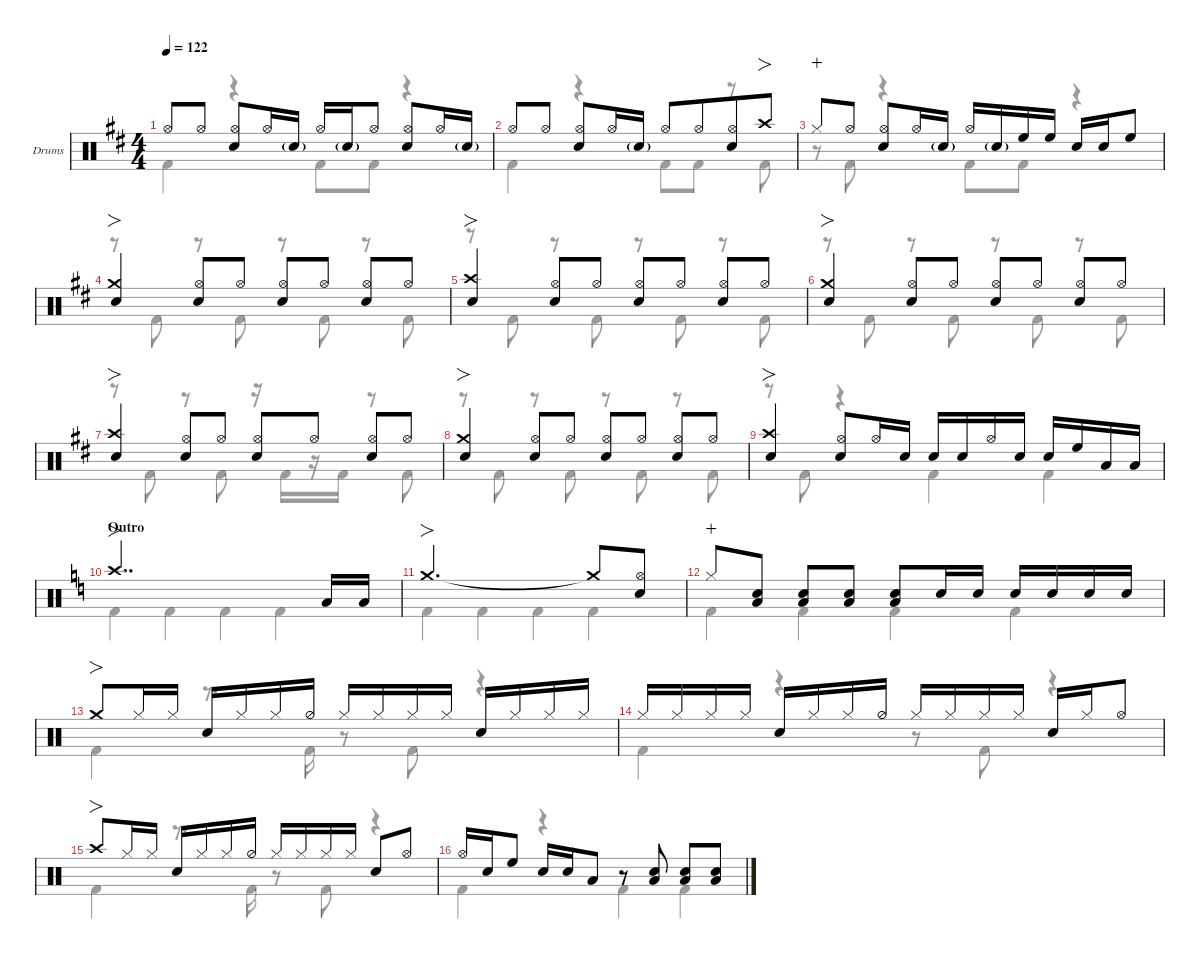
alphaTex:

\defaultSystemsLayout 4
\hideDynamics
\bracketExtendMode nobrackets
\firstSystemTrackNameOrientation horizontal
\track ("Drums" "Drums") {defaultSystemsLayout 4 instrument percussion}
\staff {score}
\articulation defaults
\voice
\ts (4 4)
\tempo 122
\clef neutral
\scale
0.244461
\ks d "Hi-Hat (open)"{acc forcenatural}.8{dy f beam Up} "Hi-Hat (open)"{acc forcenatural}.8{dy mf beam Up beam split}
("Hi-Hat (open)"{acc forcenatural} "Snare (hit) 2"{acc forcenatural}).8{dy f beam Up} "Hi-Hat (open)"{acc forcenatural}.16{dy mf beam Up} "Snare (hit) 2"{g acc forcenatural}.16{beam Up} "Hi-Hat (open)"{acc forcenatural}.16{dy f beam Up} "Snare (hit) 2"{g acc forcenatural}.16{dy mf beam Up} "Hi-Hat (open)"{acc forcenatural}.8{beam Up beam split} ("Hi-Hat (open)"{acc forcenatural} "Snare (hit) 2"{acc forcenatural}).8{dy f beam Up} "Hi-Hat (open)"{acc forcenatural}.16{dy mf beam Up} "Snare (hit) 2"{g acc forcenatural}.16{beam Up} |
\scale
0.24446 "Hi-Hat (open)"{acc forcenatural}.8{dy f beam Up} "Hi-Hat (open)"{acc forcenatural}.8{dy mf beam Up beam split} ("Hi-Hat (open)"{acc forcenatural} "Snare (hit) 2"{acc forcenatural}).8{dy f beam Up} "Hi-Hat (open)"{acc forcenatural}.16{dy mf beam Up} "Snare (hit) 2"{g acc forcenatural}.16{beam Up} "Hi-Hat (open)"{acc forcenatural}.8{dy f beam Up} "Hi-Hat (open)"{acc forcenatural}.8{dy mf beam Up beam merge} ("Snare (hit) 2"{acc forcenatural} "Hi-Hat (open)"{acc forcenatural}).8{dy f beam Up} "Crash high (hit)"{acc forcenatural}.8{fo beam Up} |
\scale
0.244461 "Hi-Hat (closed)"{acc forcenatural}.8{dy mp wahc beam Up} "Hi-Hat (open)"{acc forcenatural}.8{dy mf beam Up beam split} ("Hi-Hat (open)"{acc forcenatural} "Snare (hit) 2"{acc forcenatural}).8{dy f beam Up} "Hi-Hat (open)"{acc forcenatural}.16{dy mf beam Up} "Snare (hit) 2"{g acc forcenatural}.16{beam Up} "Hi-Hat (open)"{acc forcenatural}.16{dy f beam Up} "Snare (hit) 2"{g acc forcenatural}.16{dy mf beam Up} "High Floor Tom (hit)"{acc forcenatural}.16{dy f beam Up} "High Floor Tom (hit)"{acc forcenatural}.16{beam Up beam split} "Snare (hit) 2"{acc forcenatural}.16{beam Up} "Snare (hit) 2"{acc forcenatural}.16{beam Up} "High Floor Tom (hit)"{acc forcenatural}.8{beam Up} |
\scale
0.266618 ("Crash medium (hit)"{acc forcenatural} "Snare (hit) 2"{acc forcenatural}).4{fo beam Up} ("Snare (hit) 2"{acc forcenatural} "Hi-Hat (open)"{acc forcenatural}).8{beam Up} "Hi-Hat (open)"{acc forcenatural}.8{dy mf beam Up} ("Snare (hit) 2"{acc forcenatural} "Hi-Hat (open)"{acc forcenatural}).8{dy f beam Up} "Hi-Hat (open)"{acc forcenatural}.8{dy mf beam Up} ("Snare (hit) 2"{acc forcenatural} "Hi-Hat (open)"{acc forcenatural}).8{dy f beam Up} "Hi-Hat (open)"{acc forcenatural}.8{dy mf beam Up} |
\scale
0.244461 ("Crash high (hit)"{acc forcenatural} "Snare (hit) 2"{acc forcenatural}).4{fo dy f beam Up} ("Snare (hit) 2"{acc forcenatural} "Hi-Hat (open)"{acc forcenatural}).8{beam Up} "Hi-Hat (open)"{acc forcenatural}.8{dy mf beam Up} ("Snare (hit) 2"{acc forcenatural} "Hi-Hat (open)"{acc forcenatural}).8{dy f beam Up} "Hi-Hat (open)"{acc forcenatural}.8{dy mf beam Up} ("Snare (hit) 2"{acc forcenatural} "Hi-Hat (open)"{acc forcenatural}).8{dy f beam Up} "Hi-Hat (open)"{acc forcenatural}.8{dy mf beam Up} |
\scale
0.24446 ("Crash medium (hit)"{acc forcenatural} "Snare (hit) 2"{acc forcenatural}).4{fo dy f beam Up} ("Snare (hit) 2"{acc forcenatural} "Hi-Hat (open)"{acc forcenatural}).8{beam Up} "Hi-Hat (open)"{acc forcenatural}.8{dy mf beam Up} ("Snare (hit) 2"{acc forcenatural} "Hi-Hat (open)"{acc forcenatural}).8{dy f beam Up} "Hi-Hat (open)"{acc forcenatural}.8{dy mf beam Up} ("Snare (hit) 2"{acc forcenatural} "Hi-Hat (open)"{acc forcenatural}).8{dy f beam Up} "Hi-Hat (open)"{acc forcenatural}.8{dy mf beam Up} |
\scale
0.244461 ("Crash high (hit)"{acc forcenatural} "Snare (hit) 2"{acc forcenatural}).4{fo dy f beam Up} ("Snare (hit) 2"{acc forcenatural} "Hi-Hat (open)"{acc forcenatural}).8{beam Up} "Hi-Hat (open)"{acc forcenatural}.8{dy mf beam Up} ("Snare (hit) 2"{acc forcenatural} "Hi-Hat (open)"{acc forcenatural}).8{dy f beam Up} "Hi-Hat (open)"{acc forcenatural}.8{dy mf beam Up} ("Snare (hit) 2"{acc forcenatural} "Hi-Hat (open)"{acc forcenatural}).8{dy f beam Up} "Hi-Hat (open)"{acc forcenatural}.8{dy mf beam Up} |
\scale
0.511079 ("Crash medium (hit)"{acc forcenatural} "Snare (hit) 2"{acc forcenatural}).4{fo dy f beam Up} ("Snare (hit) 2"{acc forcenatural} "Hi-Hat (open)"{acc forcenatural}).8{beam Up} "Hi-Hat (open)"{acc forcenatural}.8{dy mf beam Up} ("Snare (hit) 2"{acc forcenatural} "Hi-Hat (open)"{acc forcenatural}).8{dy f beam Up} "Hi-Hat (open)"{acc forcenatural}.8{dy mf beam Up} ("Snare (hit) 2"{acc forcenatural} "Hi-Hat (open)"{acc forcenatural}).8{dy f beam Up} "Hi-Hat (open)"{acc forcenatural}.8{dy mf beam Up} |
\scale
0.488921 ("Crash high (hit)"{acc forcenatural} "Snare (hit) 2"{acc forcenatural}).4{fo dy f beam Up} ("Snare (hit) 2"{acc forcenatural} "Hi-Hat (open)"{acc forcenatural}).8{beam Up} "Hi-Hat (open)"{acc forcenatural}.16{dy mf beam Up} "Snare (hit) 2"{acc forcenatural}.16{beam Up} "Snare (hit) 2"{acc forcenatural}.16{dy f beam Up} "Snare (hit) 2"{acc forcenatural}.16{dy mf beam Up} "Hi-Hat (open)"{acc forcenatural}.16{dy f beam Up} "Snare (hit) 2"{acc forcenatural}.16{dy mf beam Up beam split} "Snare (hit) 2"{acc forcenatural}.16{dy f beam Up} "High Floor Tom (hit)"{acc forcenatural}.16{beam Up} "Low Tom (hit)"{acc forcenatural}.16{beam Up} "Low Tom (hit)"{acc forcenatural}.16{beam Up} |
\section ("" "Outro")
\scale
0.348982
\ks c "Crash high (hit)".2{fo dd beam Up} "Low Tom (hit)".16{beam Up} "Low Tom (hit)".16{dy mf beam Up}
|
\scale
0.325509 "Crash medium (hit)".2{fo d dy f beam Up} "Crash medium (hit)"{t}.8{beam Up} ("Snare (hit) 2" "Hi-Hat (open)").8{beam Up} |
\scale
0.325509 "Hi-Hat (closed)".8{dy mp wahc beam Up} ("Snare (hit) 2" "Low Tom (hit)").8{dy f beam Up} ("Low Tom (hit)" "Snare (hit) 2").8{beam Up} ("Snare (hit) 2" "Low Tom (hit)").8{beam Up} ("Snare (hit) 2" "Low Tom (hit)").8{beam Up} "Snare (hit) 2".16{dy mf beam Up} "Snare (hit) 2".16{dy mp beam Up beam split} "Snare (hit) 2".16{dy f beam Up} "Snare (hit) 2".16{dy mp beam Up} "Snare (hit) 2".16{dy mf beam Up} "Snare (hit) 2".16{dy mp beam Up beam split} |
\scale
0.268102 "Crash medium (hit)".8{fo dy f beam Up} "Hi-Hat (closed)".16{beam Up} "Hi-Hat (closed)".16{dy mf beam Up beam split} "Snare (hit) 2".16{dy f beam Up} "Hi-Hat (closed)".16{dy mf beam Up} "Hi-Hat (closed)".16{dy f beam Up} "Hi-Hat (half)".16{beam Up} "Hi-Hat (closed)".16{beam Up} "Hi-Hat (closed)".16{dy mf beam Up} "Hi-Hat (closed)".16{dy f beam Up} "Hi-Hat (closed)".16{dy mf beam Up beam split} "Snare (hit) 2".16{dy f beam Up} "Hi-Hat (closed)".16{dy mf beam Up} "Hi-Hat (closed)".16{dy f beam Up} "Hi-Hat (closed)".16{dy mf beam Up} |
\scale
0.243819 "Hi-Hat (closed)".16{dy f beam Up} "Hi-Hat (closed)".16{dy mf beam Up} "Hi-Hat (closed)".16{dy f beam Up} "Hi-Hat (closed)".16{dy mf beam Up beam split} "Snare (hit) 2".16{dy f beam Up} "Hi-Hat (closed)".16{dy mf beam Up} "Hi-Hat (closed)".16{dy f beam Up} "Hi-Hat (half)".16{beam Up} "Hi-Hat (closed)".16{beam Up} "Hi-Hat (closed)".16{dy mf beam Up} "Hi-Hat (closed)".16{dy f beam Up} "Hi-Hat (closed)".16{dy mf beam Up beam split} "Snare (hit) 2".16{dy f beam Up} "Hi-Hat (closed)".16{dy mf beam Up} "Hi-Hat (open)".8{dy f beam Up} |
\scale
0.247665 "Crash high (hit)".8{fo dy mf beam Up} "Hi-Hat (closed)".16{dy f beam Up} "Hi-Hat (closed)".16{dy mf beam Up beam split} "Snare (hit) 2".16{dy f beam Up} "Hi-Hat (closed)".16{dy mf beam Up} "Hi-Hat (closed)".16{dy f beam Up} "Hi-Hat (half)".16{beam Up} "Hi-Hat (closed)".16{beam Up} "Hi-Hat (closed)".16{dy mf beam Up} "Hi-Hat (closed)".16{dy f beam Up} "Hi-Hat (closed)".16{dy mf beam Up beam split} "Snare (hit) 2".8{dy f beam Up} "Hi-Hat (open)".8{beam Up} |
\scale
0.240413 "Hi-Hat (open)".16{beam Up} "Snare (hit) 2".16{beam Up} "High Floor Tom (hit)".8{beam Up beam split} "Snare (hit) 2".16{beam Up} "Snare (hit) 2".16{beam Up} "Low Tom (hit)".8{beam Up} r.8{beam Up} ("Low Tom (hit)" "Snare (hit) 2").8{beam Up} ("Low Tom (hit)" "Snare (hit) 2").8{beam Up} ("Low Tom (hit)" "Snare (hit) 2").8{beam Up}
\voice
\clef neutral
\ottava regular
\simile none
\scale
0.244461
\ks d "Kick (hit) 2"{acc forcenatural}.4{dy f beam Down}
r.4{beam Down} "Kick (hit) 2"{acc forcenatural}.8{beam Down} "Kick (hit) 2"{acc forcenatural}.8{beam Down} r.4{beam Down} |
\scale
0.24446 "Kick (hit) 2"{acc forcenatural}.4{beam Down} r.4{beam Down} "Kick (hit) 2"{acc forcenatural}.8{beam Down} "Kick (hit) 2"{acc forcenatural}.8{beam Down} r.8{beam Down} "Kick (hit) 2"{acc forcenatural}.8{beam Down} |
\scale
0.244461 r.8{beam Down} "Kick (hit) 2"{acc forcenatural}.8{beam Down} r.4{beam Down} "Kick (hit) 2"{acc forcenatural}.8{beam Down} "Kick (hit) 2"{acc forcenatural}.8{beam Down} r.4{beam Down} |
\scale
0.266618 r.8{beam Down} "Kick (hit) 2"{acc forcenatural}.8{beam Down} r.8{beam Down} "Kick (hit) 2"{acc forcenatural}.8{beam Down} r.8{beam Down} "Kick (hit) 2"{acc forcenatural}.8{beam Down} r.8{beam Down} "Kick (hit) 2"{acc forcenatural}.8{beam Down} |
\scale
0.244461 r.8{beam Down} "Kick (hit) 2"{acc forcenatural}.8{beam Down} r.8{beam Down} "Kick (hit) 2"{acc forcenatural}.8{beam Down} r.8{beam Down} "Kick (hit) 2"{acc forcenatural}.8{beam Down} r.8{beam Down} "Kick (hit) 2"{acc forcenatural}.8{beam Down} |
\scale
0.24446 r.8{beam Down} "Kick (hit) 2"{acc forcenatural}.8{beam Down} r.8{beam Down} "Kick (hit) 2"{acc forcenatural}.8{beam Down} r.8{beam Down} "Kick (hit) 2"{acc forcenatural}.8{beam Down} r.8{beam Down} "Kick (hit) 2"{acc forcenatural}.8{beam Down} |
\scale
0.244461 r.8{beam Down} "Kick (hit) 2"{acc forcenatural}.8{beam Down} r.8{beam Down} "Kick (hit) 2"{acc forcenatural}.8{beam Down} r.16{beam Down} "Kick (hit) 2"{acc forcenatural}.16{beam Down} r.16{beam Down} "Kick (hit) 2"{acc forcenatural}.16{beam Down beam split} r.8{beam Down beam split} "Kick (hit) 2"{acc forcenatural}.8{beam Down} |
\scale
0.511079 r.8{beam Down} "Kick (hit) 2"{acc forcenatural}.8{beam Down} r.8{beam Down} "Kick (hit) 2"{acc forcenatural}.8{beam Down} r.8{beam Down} "Kick (hit) 2"{acc forcenatural}.8{beam Down} r.8{beam Down} "Kick (hit) 2"{acc forcenatural}.8{beam Down} |
\scale
0.488921 r.8{beam Down} "Kick (hit) 2"{acc forcenatural}.8{beam Down} r.4{beam Down} "Kick (hit) 2"{acc forcenatural}.4{beam Down} "Kick (hit) 2"{acc forcenatural}.4{beam Down} |
\scale
0.348982
\ks c "Kick (hit) 2".4{beam Down} "Kick (hit) 2".4{beam Down} "Kick (hit) 2".4{beam Down} "Kick (hit) 2".4{beam Down}
|
\scale
0.325509 "Kick (hit) 2".4{beam Down} "Kick (hit) 2".4{beam Down} "Kick (hit) 2".4{beam Down} "Kick (hit) 2".4{beam Down} |
\scale
0.325509 "Kick (hit) 2".4{beam Down} "Kick (hit) 2".4{beam Down} "Kick (hit) 2".4{beam Down} "Kick (hit) 2".4{beam Down} |
\scale
0.268102 "Kick (hit) 2".4{beam Down} r.8{d beam Down} "Kick (hit) 2".16{beam Down} r.8{beam Down} "Kick (hit) 2".8{beam Down} r.4{beam Down} |
\scale
0.243819 "Kick (hit) 2".4{beam Down} r.4{beam Down} r.8{beam Down} "Kick (hit) 2".8{beam Down} r.4{beam Down} |
\scale
0.247665 "Kick (hit) 2".4{beam Down} r.8{d beam Down} "Kick (hit) 2".16{beam Down} r.8{beam Down} "Kick (hit) 2".8{beam Down} r.4{beam Down} |
\scale
0.240413 "Kick (hit) 2".4{beam Down} r.4{beam Down} "Kick (hit) 2".4{beam Down} "Kick (hit) 2".4{beam Down}
